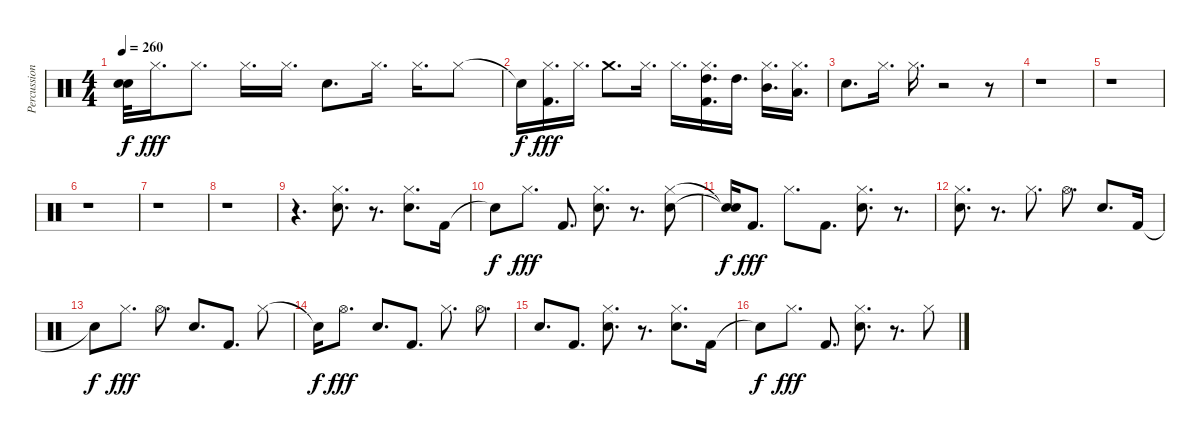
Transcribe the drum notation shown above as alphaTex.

\track ("Percussion" "Percussion") {instrument percussion}
\staff {score}
\articulation defaults
\ts (4 4)
\tempo 260
\clef neutral
\ks c
("Snare (hit)"{t} "Snare (hit)"{t}).32{dy f} "Hi-Hat (closed)".16{d dy fff} "Hi-Hat (closed)".8{d} "Hi-Hat (closed)".16{d} "Hi-Hat (closed)".16{d} "Electric Snare (hit)".8{d} "Hi-Hat (closed)".16{d} "Hi-Hat (closed)".16{d} "Hi-Hat (closed)".8 |
"Snare (hit)"{t}.16{dy f} ("Kick (hit) 2" "Hi-Hat (closed)").16{d dy fff} "Hi-Hat (closed)".16{d} "Crash medium (hit)".8{d} "Hi-Hat (closed)".16{d} "Hi-Hat (closed)".16{d} ("Kick (hit) 2" "Hi-Hat (closed)" "High Tom (hit)").16{d} "High Tom (hit)".16{d} ("Hi-Hat (closed)" "Mid Tom (hit)").16{d} ("Hi-Hat (closed)" "Low Tom (hit)").16{d} |
"Electric Snare (hit)".8{d} "Hi-Hat (closed)".16{d} "Hi-Hat (closed)".16{d} r.2 r.8 |
r.1 |
r.1 |
r.1 |
r.1 |
r.1 |
r.4{d} ("Hi-Hat (closed)" "Electric Snare (hit)").8{d} r.8{d} ("Electric Snare (hit)" "Hi-Hat (closed)").8{d} "Kick (hit) 2".16 |
"Snare (hit)"{t}.8{dy f} "Hi-Hat (closed)".8{d dy fff} "Kick (hit) 2".8{d} ("Electric Snare (hit)" "Hi-Hat (closed)").8{d} r.8{d} ("Electric Snare (hit)" "Hi-Hat (closed)").8 |
("Snare (hit)"{t} "Snare (hit)"{t}).16{dy f} "Kick (hit) 2".8{d dy fff} "Hi-Hat (closed)".8{d} "Kick (hit) 2".8{d} ("Electric Snare (hit)" "Hi-Hat (closed)").8{d} r.8{d} |
("Hi-Hat (closed)" "Electric Snare (hit)").8{d} r.8{d} "Hi-Hat (closed)".8{d} "Hi-Hat (open)".8{d} "Electric Snare (hit)".8{d} "Kick (hit) 2".16 |
"Snare (hit)"{t}.8{dy f} "Hi-Hat (closed)".8{d dy fff} "Hi-Hat (open)".8{d} "Electric Snare (hit)".8{d} "Kick (hit) 2".8{d} "Hi-Hat (closed)".8 |
"Snare (hit)"{t}.16{dy f} "Hi-Hat (open)".8{d dy fff} "Electric Snare (hit)".8{d} "Kick (hit) 2".8{d} "Hi-Hat (closed)".8{d} "Hi-Hat (open)".8{d} |
"Electric Snare (hit)".8{d} "Kick (hit) 2".8{d} ("Hi-Hat (closed)" "Electric Snare (hit)").8{d} r.8{d} ("Electric Snare (hit)" "Hi-Hat (closed)").8{d} "Kick (hit) 2".16 |
"Snare (hit)"{t}.8{dy f} "Hi-Hat (closed)".8{d dy fff} "Kick (hit) 2".8{d} ("Electric Snare (hit)" "Hi-Hat (closed)").8{d} r.8{d} "Hi-Hat (closed)".8
